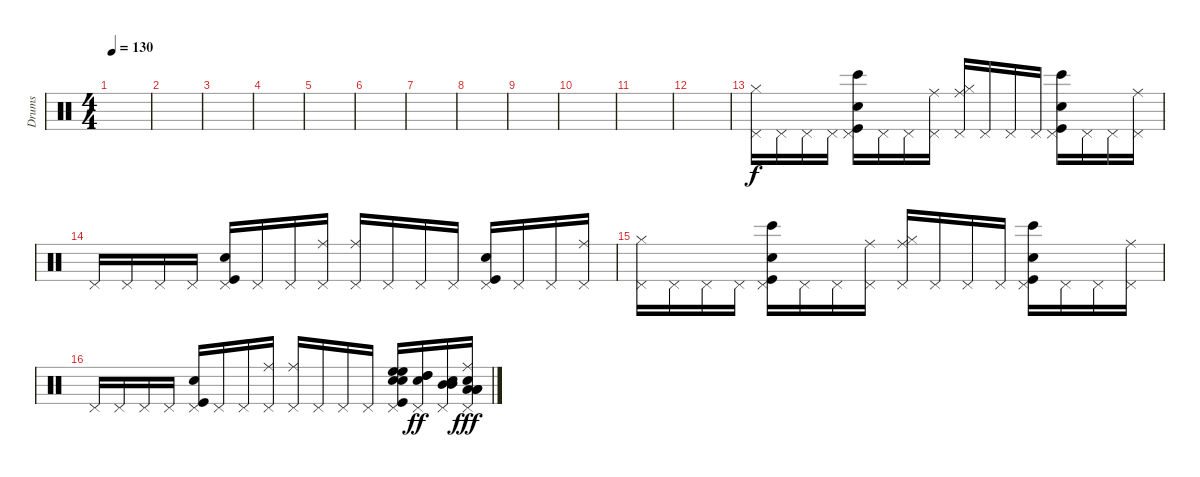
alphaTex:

\track ("Drums" "Drums") {instrument percussion}
\staff {score}
\articulation defaults
\ts (4 4)
\tempo 130
\clef neutral
\ks c
|
|
|
|
|
|
|
|
|
|
|
|
("Pedal Hi-Hat (hit)" "Hi-Hat (closed)").16 "Pedal Hi-Hat (hit)".16 "Pedal Hi-Hat (hit)".16 "Pedal Hi-Hat (hit)".16 ("Pedal Hi-Hat (hit)" "Kick (hit)" "Electric Snare (hit)" "Bongo High (hit)").16 "Pedal Hi-Hat (hit)".16 "Pedal Hi-Hat (hit)".16 ("Pedal Hi-Hat (hit)" "Ride (middle)").16 ("Pedal Hi-Hat (hit)" "Ride (middle)" "Hi-Hat (closed)").16 "Pedal Hi-Hat (hit)".16 "Pedal Hi-Hat (hit)".16 "Pedal Hi-Hat (hit)".16 ("Kick (hit)" "Pedal Hi-Hat (hit)" "Electric Snare (hit)" "Bongo High (hit)").16 "Pedal Hi-Hat (hit)".16 "Pedal Hi-Hat (hit)".16 ("Pedal Hi-Hat (hit)" "Ride (middle)").16 |
"Pedal Hi-Hat (hit)".16 "Pedal Hi-Hat (hit)".16 "Pedal Hi-Hat (hit)".16 "Pedal Hi-Hat (hit)".16 ("Pedal Hi-Hat (hit)" "Kick (hit)" "Electric Snare (hit)").16 "Pedal Hi-Hat (hit)".16 "Pedal Hi-Hat (hit)".16 ("Pedal Hi-Hat (hit)" "Ride (middle)").16 ("Pedal Hi-Hat (hit)" "Ride (middle)").16 "Pedal Hi-Hat (hit)".16 "Pedal Hi-Hat (hit)".16 "Pedal Hi-Hat (hit)".16 ("Kick (hit)" "Pedal Hi-Hat (hit)" "Electric Snare (hit)").16 "Pedal Hi-Hat (hit)".16 "Pedal Hi-Hat (hit)".16 ("Pedal Hi-Hat (hit)" "Ride (middle)").16 |
("Pedal Hi-Hat (hit)" "Hi-Hat (closed)").16 "Pedal Hi-Hat (hit)".16 "Pedal Hi-Hat (hit)".16 "Pedal Hi-Hat (hit)".16 ("Pedal Hi-Hat (hit)" "Kick (hit)" "Electric Snare (hit)" "Bongo High (hit)").16 "Pedal Hi-Hat (hit)".16 "Pedal Hi-Hat (hit)".16 ("Pedal Hi-Hat (hit)" "Ride (middle)").16 ("Pedal Hi-Hat (hit)" "Ride (middle)" "Hi-Hat (closed)").16 "Pedal Hi-Hat (hit)".16 "Pedal Hi-Hat (hit)".16 "Pedal Hi-Hat (hit)".16 ("Kick (hit)" "Pedal Hi-Hat (hit)" "Electric Snare (hit)" "Bongo High (hit)").16 "Pedal Hi-Hat (hit)".16 "Pedal Hi-Hat (hit)".16 ("Pedal Hi-Hat (hit)" "Ride (middle)").16 |
"Pedal Hi-Hat (hit)".16 "Pedal Hi-Hat (hit)".16 "Pedal Hi-Hat (hit)".16 "Pedal Hi-Hat (hit)".16 ("Pedal Hi-Hat (hit)" "Kick (hit)" "Electric Snare (hit)").16 "Pedal Hi-Hat (hit)".16 "Pedal Hi-Hat (hit)".16 ("Pedal Hi-Hat (hit)" "Ride (middle)").16 ("Pedal Hi-Hat (hit)" "Ride (middle)").16 "Pedal Hi-Hat (hit)".16 "Pedal Hi-Hat (hit)".16 "Pedal Hi-Hat (hit)".16 ("Kick (hit)" "Pedal Hi-Hat (hit)" "Electric Snare (hit)" "High Floor Tom (hit)" "High Floor Tom (hit)" "Snare (hit) 2").16 ("Pedal Hi-Hat (hit)" "High Tom (hit)" "High Tom (hit)" "Snare (hit) 2").16{dy ff} ("Pedal Hi-Hat (hit)" "Mid Tom (hit)" "Mid Tom (hit)" "Snare (hit) 2").16 ("Pedal Hi-Hat (hit)" "Ride (middle)" "Low Tom (hit)" "Low Tom (hit)" "Low Tom (hit)" "Snare (hit) 2").16{dy fff}
